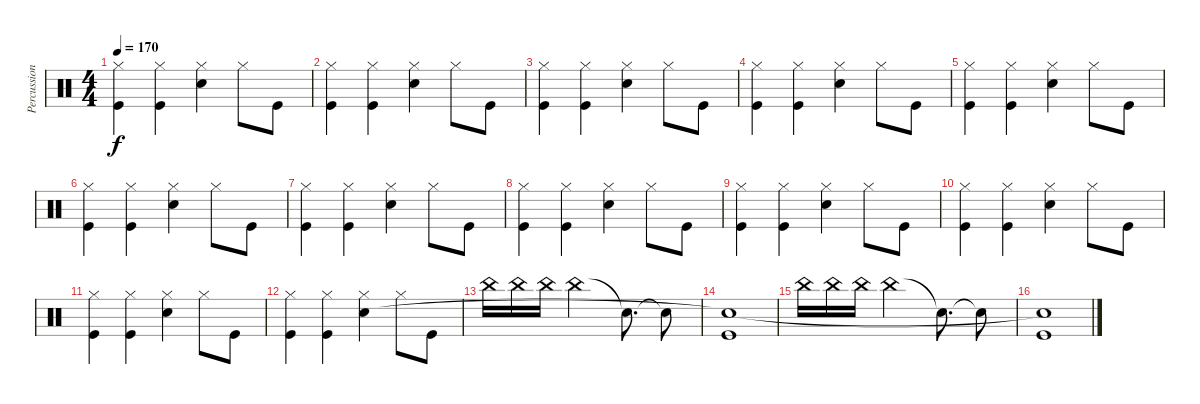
\track ("Percussion" "Percussion") {instrument percussion}
\staff {score}
\articulation defaults
\ts (4 4)
\tempo 170
\clef neutral
\ks c
("Hi-Hat (closed)" "Kick (hit)").4{dy f} ("Hi-Hat (closed)" "Kick (hit)").4 ("Hi-Hat (closed)" "Snare (hit) 2").4 "Hi-Hat (closed)".8 "Kick (hit)".8 |
("Hi-Hat (closed)" "Kick (hit)").4 ("Hi-Hat (closed)" "Kick (hit)").4 ("Hi-Hat (closed)" "Snare (hit) 2").4 "Hi-Hat (closed)".8 "Kick (hit)".8 |
("Hi-Hat (closed)" "Kick (hit)").4 ("Hi-Hat (closed)" "Kick (hit)").4 ("Hi-Hat (closed)" "Snare (hit) 2").4 "Hi-Hat (closed)".8 "Kick (hit)".8 |
("Hi-Hat (closed)" "Kick (hit)").4 ("Hi-Hat (closed)" "Kick (hit)").4 ("Hi-Hat (closed)" "Snare (hit) 2").4 "Hi-Hat (closed)".8 "Kick (hit)".8 |
("Hi-Hat (closed)" "Kick (hit)").4 ("Hi-Hat (closed)" "Kick (hit)").4 ("Hi-Hat (closed)" "Snare (hit) 2").4 "Hi-Hat (closed)".8 "Kick (hit)".8 |
("Hi-Hat (closed)" "Kick (hit)").4 ("Hi-Hat (closed)" "Kick (hit)").4 ("Hi-Hat (closed)" "Snare (hit) 2").4 "Hi-Hat (closed)".8 "Kick (hit)".8 |
("Hi-Hat (closed)" "Kick (hit)").4 ("Hi-Hat (closed)" "Kick (hit)").4 ("Hi-Hat (closed)" "Snare (hit) 2").4 "Hi-Hat (closed)".8 "Kick (hit)".8 |
("Hi-Hat (closed)" "Kick (hit)").4 ("Hi-Hat (closed)" "Kick (hit)").4 ("Hi-Hat (closed)" "Snare (hit) 2").4 "Hi-Hat (closed)".8 "Kick (hit)".8 |
("Hi-Hat (closed)" "Kick (hit)").4 ("Hi-Hat (closed)" "Kick (hit)").4 ("Hi-Hat (closed)" "Snare (hit) 2").4 "Hi-Hat (closed)".8 "Kick (hit)".8 |
("Hi-Hat (closed)" "Kick (hit)").4 ("Hi-Hat (closed)" "Kick (hit)").4 ("Hi-Hat (closed)" "Snare (hit) 2").4 "Hi-Hat (closed)".8 "Kick (hit)".8 |
("Hi-Hat (closed)" "Kick (hit)").4 ("Hi-Hat (closed)" "Kick (hit)").4 ("Hi-Hat (closed)" "Snare (hit) 2").4 "Hi-Hat (closed)".8 "Kick (hit)".8 |
("Hi-Hat (closed)" "Kick (hit)").4 ("Hi-Hat (closed)" "Kick (hit)").4 ("Hi-Hat (closed)" "Snare (hit) 2").4 "Hi-Hat (closed)".8 "Kick (hit)".8 |
"China (hit)".16 "China (hit)".16 "China (hit)".16 "China (hit)".2 "Snare (hit)"{t}.8{d} "Snare (hit)"{t}.8 |
("Kick (hit)" "Snare (hit)"{t}).1 |
"China (hit)".16 "China (hit)".16 "China (hit)".16 "China (hit)".2 "Snare (hit)"{t}.8{d} "Snare (hit)"{t}.8 |
("Kick (hit)" "Snare (hit)"{t}).1
